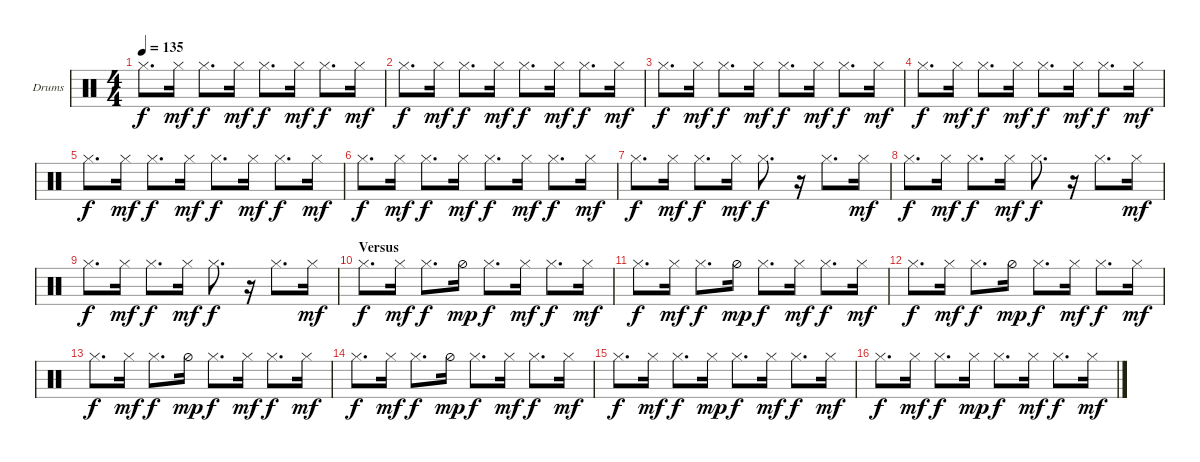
\bracketExtendMode groupsimilarinstruments
\firstSystemTrackNameOrientation horizontal
\otherSystemsTrackNameOrientation horizontal
\track ("HH" "Drums") {instrument percussion}
\staff {score}
\articulation defaults
\ts (4 4)
\tempo 135
\clef neutral
\ks c "Hi-Hat (closed)".8{d dy f} "Hi-Hat (closed)".16{dy mf} "Hi-Hat (closed)".8{d dy f} "Hi-Hat (closed)".16{dy mf} "Hi-Hat (closed)".8{d dy f} "Hi-Hat (closed)".16{dy mf} "Hi-Hat (closed)".8{d dy f} "Hi-Hat (closed)".16{dy mf}
|
"Hi-Hat (closed)".8{d dy f} "Hi-Hat (closed)".16{dy mf} "Hi-Hat (closed)".8{d dy f} "Hi-Hat (closed)".16{dy mf} "Hi-Hat (closed)".8{d dy f} "Hi-Hat (closed)".16{dy mf} "Hi-Hat (closed)".8{d dy f} "Hi-Hat (closed)".16{dy mf} |
"Hi-Hat (closed)".8{d dy f} "Hi-Hat (closed)".16{dy mf} "Hi-Hat (closed)".8{d dy f} "Hi-Hat (closed)".16{dy mf} "Hi-Hat (closed)".8{d dy f} "Hi-Hat (closed)".16{dy mf} "Hi-Hat (closed)".8{d dy f} "Hi-Hat (closed)".16{dy mf} |
"Hi-Hat (closed)".8{d dy f} "Hi-Hat (closed)".16{dy mf} "Hi-Hat (closed)".8{d dy f} "Hi-Hat (closed)".16{dy mf} "Hi-Hat (closed)".8{d dy f} "Hi-Hat (closed)".16{dy mf} "Hi-Hat (closed)".8{d dy f} "Hi-Hat (closed)".16{dy mf} |
"Hi-Hat (closed)".8{d dy f} "Hi-Hat (closed)".16{dy mf} "Hi-Hat (closed)".8{d dy f} "Hi-Hat (closed)".16{dy mf} "Hi-Hat (closed)".8{d dy f} "Hi-Hat (closed)".16{dy mf} "Hi-Hat (closed)".8{d dy f} "Hi-Hat (closed)".16{dy mf} |
"Hi-Hat (closed)".8{d dy f} "Hi-Hat (closed)".16{dy mf} "Hi-Hat (closed)".8{d dy f} "Hi-Hat (closed)".16{dy mf} "Hi-Hat (closed)".8{d dy f} "Hi-Hat (closed)".16{dy mf} "Hi-Hat (closed)".8{d dy f} "Hi-Hat (closed)".16{dy mf} |
"Hi-Hat (closed)".8{d dy f} "Hi-Hat (closed)".16{dy mf} "Hi-Hat (closed)".8{d dy f} "Hi-Hat (closed)".16{dy mf} "Hi-Hat (closed)".8{d dy f} r.16 "Hi-Hat (closed)".8{d} "Hi-Hat (closed)".16{dy mf} |
"Hi-Hat (closed)".8{d dy f} "Hi-Hat (closed)".16{dy mf} "Hi-Hat (closed)".8{d dy f} "Hi-Hat (closed)".16{dy mf} "Hi-Hat (closed)".8{d dy f} r.16 "Hi-Hat (closed)".8{d} "Hi-Hat (closed)".16{dy mf} |
"Hi-Hat (closed)".8{d dy f} "Hi-Hat (closed)".16{dy mf} "Hi-Hat (closed)".8{d dy f} "Hi-Hat (closed)".16{dy mf} "Hi-Hat (closed)".8{d dy f} r.16 "Hi-Hat (closed)".8{d} "Hi-Hat (closed)".16{dy mf} |
\section ("" "Versus")
"Hi-Hat (closed)".8{d dy f} "Hi-Hat (closed)".16{dy mf} "Hi-Hat (closed)".8{d dy f} "Hi-Hat (half)".16{dy mp} "Hi-Hat (closed)".8{d dy f} "Hi-Hat (closed)".16{dy mf} "Hi-Hat (closed)".8{d dy f} "Hi-Hat (closed)".16{dy mf} |
"Hi-Hat (closed)".8{d dy f} "Hi-Hat (closed)".16{dy mf} "Hi-Hat (closed)".8{d dy f} "Hi-Hat (half)".16{dy mp} "Hi-Hat (closed)".8{d dy f} "Hi-Hat (closed)".16{dy mf} "Hi-Hat (closed)".8{d dy f} "Hi-Hat (closed)".16{dy mf} |
"Hi-Hat (closed)".8{d dy f} "Hi-Hat (closed)".16{dy mf} "Hi-Hat (closed)".8{d dy f} "Hi-Hat (half)".16{dy mp} "Hi-Hat (closed)".8{d dy f} "Hi-Hat (closed)".16{dy mf} "Hi-Hat (closed)".8{d dy f} "Hi-Hat (closed)".16{dy mf} |
"Hi-Hat (closed)".8{d dy f} "Hi-Hat (closed)".16{dy mf} "Hi-Hat (closed)".8{d dy f} "Hi-Hat (half)".16{dy mp} "Hi-Hat (closed)".8{d dy f} "Hi-Hat (closed)".16{dy mf} "Hi-Hat (closed)".8{d dy f} "Hi-Hat (closed)".16{dy mf} |
"Hi-Hat (closed)".8{d dy f} "Hi-Hat (closed)".16{dy mf} "Hi-Hat (closed)".8{d dy f} "Hi-Hat (half)".16{dy mp} "Hi-Hat (closed)".8{d dy f} "Hi-Hat (closed)".16{dy mf} "Hi-Hat (closed)".8{d dy f} "Hi-Hat (closed)".16{dy mf} |
"Hi-Hat (closed)".8{d dy f} "Hi-Hat (closed)".16{dy mf} "Hi-Hat (closed)".8{d dy f} "Hi-Hat (closed)".16{dy mp} "Hi-Hat (closed)".8{d dy f} "Hi-Hat (closed)".16{dy mf} "Hi-Hat (closed)".8{d dy f} "Hi-Hat (closed)".16{dy mf} |
"Hi-Hat (closed)".8{d dy f} "Hi-Hat (closed)".16{dy mf} "Hi-Hat (closed)".8{d dy f} "Hi-Hat (closed)".16{dy mp} "Hi-Hat (closed)".8{d dy f} "Hi-Hat (closed)".16{dy mf} "Hi-Hat (closed)".8{d dy f} "Hi-Hat (closed)".16{dy mf}
